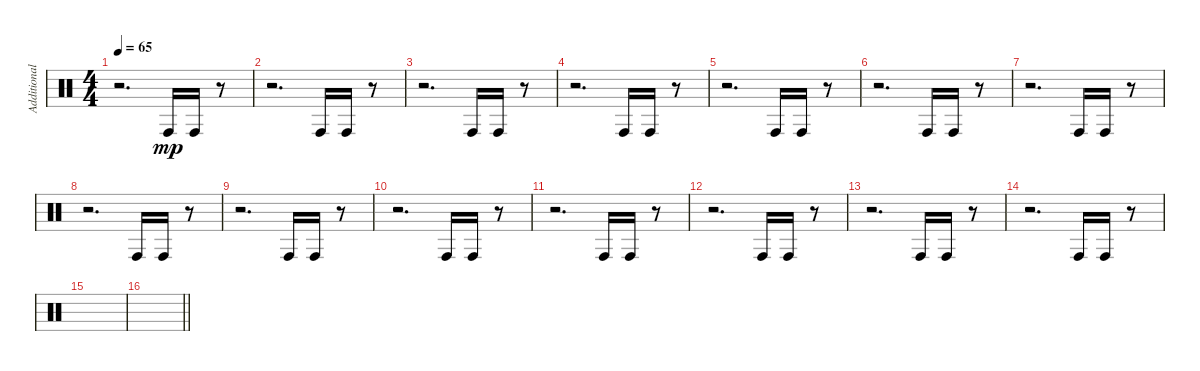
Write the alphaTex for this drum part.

\track ("Additional Percussions" "Additional") {instrument percussion}
\staff {score}
\articulation defaults
\ts (4 4)
\tempo 65
\clef neutral
\ks c
r.2{d dy mp} "Conga high (hit)".16 "Conga high (hit)".16 r.8 |
r.2{d} "Conga high (hit)".16 "Conga high (hit)".16 r.8 |
r.2{d} "Conga high (hit)".16 "Conga high (hit)".16 r.8 |
r.2{d} "Conga high (hit)".16 "Conga high (hit)".16 r.8 |
r.2{d} "Conga high (hit)".16 "Conga high (hit)".16 r.8 |
r.2{d} "Conga high (hit)".16 "Conga high (hit)".16 r.8 |
r.2{d} "Conga high (hit)".16 "Conga high (hit)".16 r.8 |
r.2{d} "Conga high (hit)".16 "Conga high (hit)".16 r.8 |
r.2{d} "Conga high (hit)".16 "Conga high (hit)".16 r.8 |
r.2{d} "Conga high (hit)".16 "Conga high (hit)".16 r.8 |
r.2{d} "Conga high (hit)".16 "Conga high (hit)".16 r.8 |
r.2{d} "Conga high (hit)".16 "Conga high (hit)".16 r.8 |
r.2{d} "Conga high (hit)".16 "Conga high (hit)".16 r.8 |
r.2{d} "Conga high (hit)".16 "Conga high (hit)".16 r.8 |
|
\barLineRight lightlight
